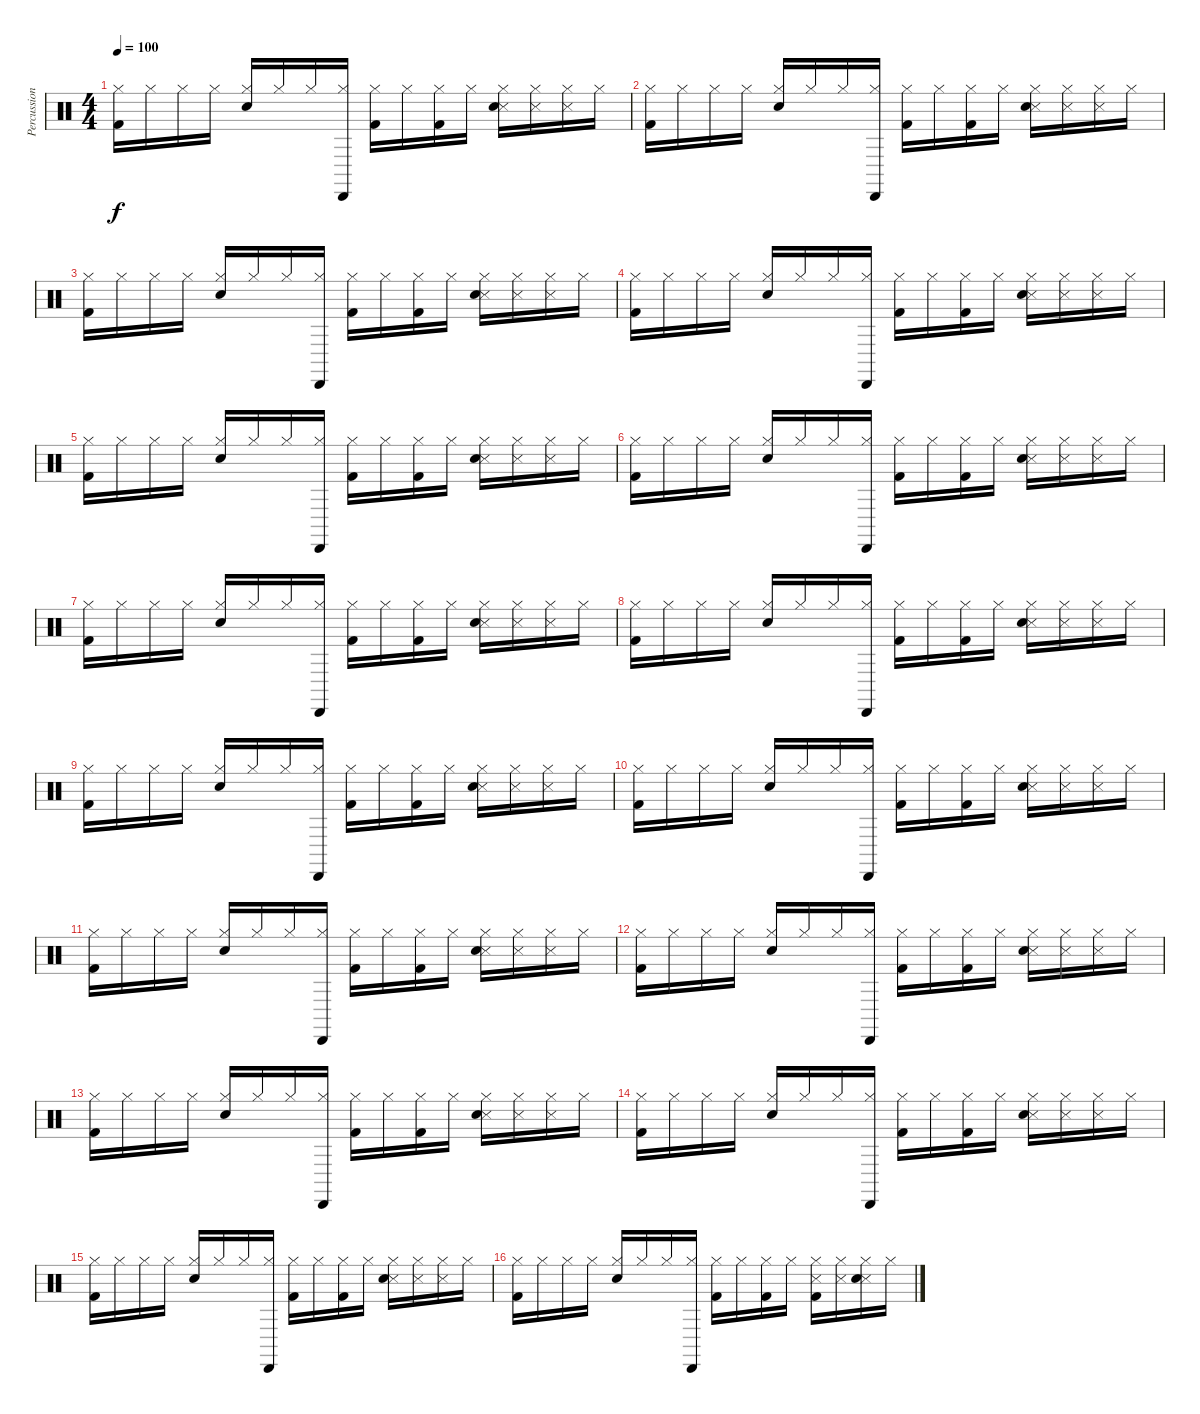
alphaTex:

\track ("Percussion" "Percussion") {instrument percussion}
\staff {score}
\articulation defaults
\ts (4 4)
\tempo 100
\clef neutral
\ks c
("Hi-Hat (closed)" "Kick (hit) 2").16{dy f} "Hi-Hat (closed)".16 "Hi-Hat (closed)".16 "Hi-Hat (closed)".16 ("Hi-Hat (closed)" "Snare (hit) 2").16 "Hi-Hat (closed)".16 "Hi-Hat (closed)".16 ("Cabasa (hit)" "Hi-Hat (closed)").16 ("Hi-Hat (closed)" "Kick (hit) 2").16 "Hi-Hat (closed)".16 ("Hi-Hat (closed)" "Kick (hit) 2").16 "Hi-Hat (closed)".16 ("Metronome (hit)" "Hi-Hat (closed)" "Snare (hit) 2").16 ("Metronome (hit)" "Hi-Hat (closed)").16 ("Metronome (hit)" "Hi-Hat (closed)").16 "Hi-Hat (closed)".16 |
("Hi-Hat (closed)" "Kick (hit) 2").16 "Hi-Hat (closed)".16 "Hi-Hat (closed)".16 "Hi-Hat (closed)".16 ("Hi-Hat (closed)" "Snare (hit) 2").16 "Hi-Hat (closed)".16 "Hi-Hat (closed)".16 ("Cabasa (hit)" "Hi-Hat (closed)").16 ("Hi-Hat (closed)" "Kick (hit) 2").16 "Hi-Hat (closed)".16 ("Hi-Hat (closed)" "Kick (hit) 2").16 "Hi-Hat (closed)".16 ("Metronome (hit)" "Hi-Hat (closed)" "Snare (hit) 2").16 ("Metronome (hit)" "Hi-Hat (closed)").16 ("Metronome (hit)" "Hi-Hat (closed)").16 "Hi-Hat (closed)".16 |
("Hi-Hat (closed)" "Kick (hit) 2").16 "Hi-Hat (closed)".16 "Hi-Hat (closed)".16 "Hi-Hat (closed)".16 ("Hi-Hat (closed)" "Snare (hit) 2").16 "Hi-Hat (closed)".16 "Hi-Hat (closed)".16 ("Cabasa (hit)" "Hi-Hat (closed)").16 ("Hi-Hat (closed)" "Kick (hit) 2").16 "Hi-Hat (closed)".16 ("Hi-Hat (closed)" "Kick (hit) 2").16 "Hi-Hat (closed)".16 ("Metronome (hit)" "Hi-Hat (closed)" "Snare (hit) 2").16 ("Metronome (hit)" "Hi-Hat (closed)").16 ("Metronome (hit)" "Hi-Hat (closed)").16 "Hi-Hat (closed)".16 |
("Hi-Hat (closed)" "Kick (hit) 2").16 "Hi-Hat (closed)".16 "Hi-Hat (closed)".16 "Hi-Hat (closed)".16 ("Hi-Hat (closed)" "Snare (hit) 2").16 "Hi-Hat (closed)".16 "Hi-Hat (closed)".16 ("Cabasa (hit)" "Hi-Hat (closed)").16 ("Hi-Hat (closed)" "Kick (hit) 2").16 "Hi-Hat (closed)".16 ("Hi-Hat (closed)" "Kick (hit) 2").16 "Hi-Hat (closed)".16 ("Metronome (hit)" "Hi-Hat (closed)" "Snare (hit) 2").16 ("Metronome (hit)" "Hi-Hat (closed)").16 ("Metronome (hit)" "Hi-Hat (closed)").16 "Hi-Hat (closed)".16 |
("Hi-Hat (closed)" "Kick (hit) 2").16 "Hi-Hat (closed)".16 "Hi-Hat (closed)".16 "Hi-Hat (closed)".16 ("Hi-Hat (closed)" "Snare (hit) 2").16 "Hi-Hat (closed)".16 "Hi-Hat (closed)".16 ("Cabasa (hit)" "Hi-Hat (closed)").16 ("Hi-Hat (closed)" "Kick (hit) 2").16 "Hi-Hat (closed)".16 ("Hi-Hat (closed)" "Kick (hit) 2").16 "Hi-Hat (closed)".16 ("Metronome (hit)" "Hi-Hat (closed)" "Snare (hit) 2").16 ("Metronome (hit)" "Hi-Hat (closed)").16 ("Metronome (hit)" "Hi-Hat (closed)").16 "Hi-Hat (closed)".16 |
("Hi-Hat (closed)" "Kick (hit) 2").16 "Hi-Hat (closed)".16 "Hi-Hat (closed)".16 "Hi-Hat (closed)".16 ("Hi-Hat (closed)" "Snare (hit) 2").16 "Hi-Hat (closed)".16 "Hi-Hat (closed)".16 ("Cabasa (hit)" "Hi-Hat (closed)").16 ("Hi-Hat (closed)" "Kick (hit) 2").16 "Hi-Hat (closed)".16 ("Hi-Hat (closed)" "Kick (hit) 2").16 "Hi-Hat (closed)".16 ("Metronome (hit)" "Hi-Hat (closed)" "Snare (hit) 2").16 ("Metronome (hit)" "Hi-Hat (closed)").16 ("Metronome (hit)" "Hi-Hat (closed)").16 "Hi-Hat (closed)".16 |
("Hi-Hat (closed)" "Kick (hit) 2").16 "Hi-Hat (closed)".16 "Hi-Hat (closed)".16 "Hi-Hat (closed)".16 ("Hi-Hat (closed)" "Snare (hit) 2").16 "Hi-Hat (closed)".16 "Hi-Hat (closed)".16 ("Cabasa (hit)" "Hi-Hat (closed)").16 ("Hi-Hat (closed)" "Kick (hit) 2").16 "Hi-Hat (closed)".16 ("Hi-Hat (closed)" "Kick (hit) 2").16 "Hi-Hat (closed)".16 ("Metronome (hit)" "Hi-Hat (closed)" "Snare (hit) 2").16 ("Metronome (hit)" "Hi-Hat (closed)").16 ("Metronome (hit)" "Hi-Hat (closed)").16 "Hi-Hat (closed)".16 |
("Hi-Hat (closed)" "Kick (hit) 2").16 "Hi-Hat (closed)".16 "Hi-Hat (closed)".16 "Hi-Hat (closed)".16 ("Hi-Hat (closed)" "Snare (hit) 2").16 "Hi-Hat (closed)".16 "Hi-Hat (closed)".16 ("Cabasa (hit)" "Hi-Hat (closed)").16 ("Hi-Hat (closed)" "Kick (hit) 2").16 "Hi-Hat (closed)".16 ("Hi-Hat (closed)" "Kick (hit) 2").16 "Hi-Hat (closed)".16 ("Metronome (hit)" "Hi-Hat (closed)" "Snare (hit) 2").16 ("Metronome (hit)" "Hi-Hat (closed)").16 ("Metronome (hit)" "Hi-Hat (closed)").16 "Hi-Hat (closed)".16 |
("Hi-Hat (closed)" "Kick (hit) 2").16 "Hi-Hat (closed)".16 "Hi-Hat (closed)".16 "Hi-Hat (closed)".16 ("Hi-Hat (closed)" "Snare (hit) 2").16 "Hi-Hat (closed)".16 "Hi-Hat (closed)".16 ("Cabasa (hit)" "Hi-Hat (closed)").16 ("Hi-Hat (closed)" "Kick (hit) 2").16 "Hi-Hat (closed)".16 ("Hi-Hat (closed)" "Kick (hit) 2").16 "Hi-Hat (closed)".16 ("Metronome (hit)" "Hi-Hat (closed)" "Snare (hit) 2").16 ("Metronome (hit)" "Hi-Hat (closed)").16 ("Metronome (hit)" "Hi-Hat (closed)").16 "Hi-Hat (closed)".16 |
("Hi-Hat (closed)" "Kick (hit) 2").16 "Hi-Hat (closed)".16 "Hi-Hat (closed)".16 "Hi-Hat (closed)".16 ("Hi-Hat (closed)" "Snare (hit) 2").16 "Hi-Hat (closed)".16 "Hi-Hat (closed)".16 ("Cabasa (hit)" "Hi-Hat (closed)").16 ("Hi-Hat (closed)" "Kick (hit) 2").16 "Hi-Hat (closed)".16 ("Hi-Hat (closed)" "Kick (hit) 2").16 "Hi-Hat (closed)".16 ("Metronome (hit)" "Hi-Hat (closed)" "Snare (hit) 2").16 ("Metronome (hit)" "Hi-Hat (closed)").16 ("Metronome (hit)" "Hi-Hat (closed)").16 "Hi-Hat (closed)".16 |
("Hi-Hat (closed)" "Kick (hit) 2").16 "Hi-Hat (closed)".16 "Hi-Hat (closed)".16 "Hi-Hat (closed)".16 ("Hi-Hat (closed)" "Snare (hit) 2").16 "Hi-Hat (closed)".16 "Hi-Hat (closed)".16 ("Cabasa (hit)" "Hi-Hat (closed)").16 ("Hi-Hat (closed)" "Kick (hit) 2").16 "Hi-Hat (closed)".16 ("Hi-Hat (closed)" "Kick (hit) 2").16 "Hi-Hat (closed)".16 ("Metronome (hit)" "Hi-Hat (closed)" "Snare (hit) 2").16 ("Metronome (hit)" "Hi-Hat (closed)").16 ("Metronome (hit)" "Hi-Hat (closed)").16 "Hi-Hat (closed)".16 |
("Hi-Hat (closed)" "Kick (hit) 2").16 "Hi-Hat (closed)".16 "Hi-Hat (closed)".16 "Hi-Hat (closed)".16 ("Hi-Hat (closed)" "Snare (hit) 2").16 "Hi-Hat (closed)".16 "Hi-Hat (closed)".16 ("Cabasa (hit)" "Hi-Hat (closed)").16 ("Hi-Hat (closed)" "Kick (hit) 2").16 "Hi-Hat (closed)".16 ("Hi-Hat (closed)" "Kick (hit) 2").16 "Hi-Hat (closed)".16 ("Metronome (hit)" "Hi-Hat (closed)" "Snare (hit) 2").16 ("Metronome (hit)" "Hi-Hat (closed)").16 ("Metronome (hit)" "Hi-Hat (closed)").16 "Hi-Hat (closed)".16 |
("Hi-Hat (closed)" "Kick (hit) 2").16 "Hi-Hat (closed)".16 "Hi-Hat (closed)".16 "Hi-Hat (closed)".16 ("Hi-Hat (closed)" "Snare (hit) 2").16 "Hi-Hat (closed)".16 "Hi-Hat (closed)".16 ("Cabasa (hit)" "Hi-Hat (closed)").16 ("Hi-Hat (closed)" "Kick (hit) 2").16 "Hi-Hat (closed)".16 ("Hi-Hat (closed)" "Kick (hit) 2").16 "Hi-Hat (closed)".16 ("Metronome (hit)" "Hi-Hat (closed)" "Snare (hit) 2").16 ("Metronome (hit)" "Hi-Hat (closed)").16 ("Metronome (hit)" "Hi-Hat (closed)").16 "Hi-Hat (closed)".16 |
("Hi-Hat (closed)" "Kick (hit) 2").16 "Hi-Hat (closed)".16 "Hi-Hat (closed)".16 "Hi-Hat (closed)".16 ("Hi-Hat (closed)" "Snare (hit) 2").16 "Hi-Hat (closed)".16 "Hi-Hat (closed)".16 ("Cabasa (hit)" "Hi-Hat (closed)").16 ("Hi-Hat (closed)" "Kick (hit) 2").16 "Hi-Hat (closed)".16 ("Hi-Hat (closed)" "Kick (hit) 2").16 "Hi-Hat (closed)".16 ("Metronome (hit)" "Hi-Hat (closed)" "Snare (hit) 2").16 ("Metronome (hit)" "Hi-Hat (closed)").16 ("Metronome (hit)" "Hi-Hat (closed)").16 "Hi-Hat (closed)".16 |
("Hi-Hat (closed)" "Kick (hit) 2").16 "Hi-Hat (closed)".16 "Hi-Hat (closed)".16 "Hi-Hat (closed)".16 ("Hi-Hat (closed)" "Snare (hit) 2").16 "Hi-Hat (closed)".16 "Hi-Hat (closed)".16 ("Cabasa (hit)" "Hi-Hat (closed)").16 ("Hi-Hat (closed)" "Kick (hit) 2").16 "Hi-Hat (closed)".16 ("Hi-Hat (closed)" "Kick (hit) 2").16 "Hi-Hat (closed)".16 ("Metronome (hit)" "Hi-Hat (closed)" "Snare (hit) 2").16 ("Metronome (hit)" "Hi-Hat (closed)").16 ("Metronome (hit)" "Hi-Hat (closed)").16 "Hi-Hat (closed)".16 |
("Hi-Hat (closed)" "Kick (hit) 2").16 "Hi-Hat (closed)".16 "Hi-Hat (closed)".16 "Hi-Hat (closed)".16 ("Hi-Hat (closed)" "Snare (hit) 2").16 "Hi-Hat (closed)".16 "Hi-Hat (closed)".16 ("Cabasa (hit)" "Hi-Hat (closed)").16 ("Hi-Hat (closed)" "Kick (hit) 2").16 "Hi-Hat (closed)".16 ("Hi-Hat (closed)" "Kick (hit) 2").16 "Hi-Hat (closed)".16 ("Metronome (hit)" "Hi-Hat (closed)" "Kick (hit) 2").16 ("Metronome (hit)" "Hi-Hat (closed)").16 ("Metronome (hit)" "Hi-Hat (closed)" "Snare (hit) 2").16 "Hi-Hat (closed)".16
